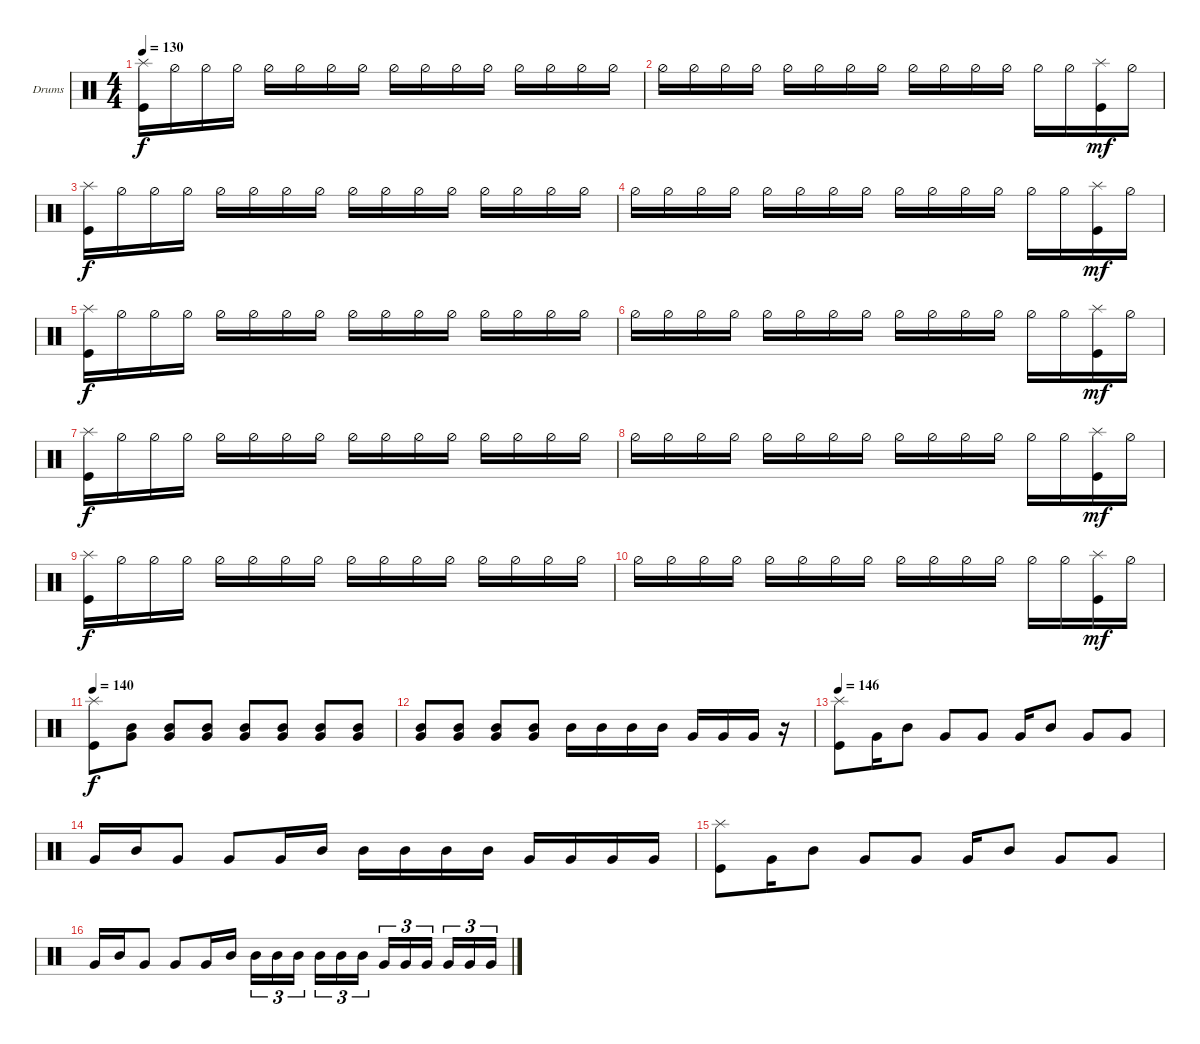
\bracketExtendMode groupsimilarinstruments
\firstSystemTrackNameOrientation horizontal
\otherSystemsTrackNameOrientation horizontal
\track ("Drumkit" "Drums") {instrument percussion}
\staff {score}
\articulation defaults
\ts (4 4)
\tempo 130
\clef neutral
\scale
0.333333
\ks c
("Splash (hit)" "Kick (hit)").16{dy f} "Hi-Hat (half)".16 "Hi-Hat (half)".16 "Hi-Hat (half)".16 "Hi-Hat (half)".16 "Hi-Hat (half)".16 "Hi-Hat (half)".16 "Hi-Hat (half)".16 "Hi-Hat (half)".16 "Hi-Hat (half)".16 "Hi-Hat (half)".16 "Hi-Hat (half)".16 "Hi-Hat (half)".16 "Hi-Hat (half)".16 "Hi-Hat (half)".16 "Hi-Hat (half)".16 |
\scale
0.333333 "Hi-Hat (half)".16 "Hi-Hat (half)".16 "Hi-Hat (half)".16 "Hi-Hat (half)".16 "Hi-Hat (half)".16 "Hi-Hat (half)".16 "Hi-Hat (half)".16 "Hi-Hat (half)".16 "Hi-Hat (half)".16 "Hi-Hat (half)".16 "Hi-Hat (half)".16 "Hi-Hat (half)".16 "Hi-Hat (half)".16 "Hi-Hat (half)".16 ("Kick (hit)" "Splash (hit)").16{dy mf} "Hi-Hat (half)".16 |
\scale
0.333333 ("Splash (hit)" "Kick (hit)").16{dy f} "Hi-Hat (half)".16 "Hi-Hat (half)".16 "Hi-Hat (half)".16 "Hi-Hat (half)".16 "Hi-Hat (half)".16 "Hi-Hat (half)".16 "Hi-Hat (half)".16 "Hi-Hat (half)".16 "Hi-Hat (half)".16 "Hi-Hat (half)".16 "Hi-Hat (half)".16 "Hi-Hat (half)".16 "Hi-Hat (half)".16 "Hi-Hat (half)".16 "Hi-Hat (half)".16 |
\scale
0.333333 "Hi-Hat (half)".16 "Hi-Hat (half)".16 "Hi-Hat (half)".16 "Hi-Hat (half)".16 "Hi-Hat (half)".16 "Hi-Hat (half)".16 "Hi-Hat (half)".16 "Hi-Hat (half)".16 "Hi-Hat (half)".16 "Hi-Hat (half)".16 "Hi-Hat (half)".16 "Hi-Hat (half)".16 "Hi-Hat (half)".16 "Hi-Hat (half)".16 ("Kick (hit)" "Splash (hit)").16{dy mf} "Hi-Hat (half)".16 |
\scale
0.333333 ("Splash (hit)" "Kick (hit)").16{dy f} "Hi-Hat (half)".16 "Hi-Hat (half)".16 "Hi-Hat (half)".16 "Hi-Hat (half)".16 "Hi-Hat (half)".16 "Hi-Hat (half)".16 "Hi-Hat (half)".16 "Hi-Hat (half)".16 "Hi-Hat (half)".16 "Hi-Hat (half)".16 "Hi-Hat (half)".16 "Hi-Hat (half)".16 "Hi-Hat (half)".16 "Hi-Hat (half)".16 "Hi-Hat (half)".16 |
\scale
0.333333 "Hi-Hat (half)".16 "Hi-Hat (half)".16 "Hi-Hat (half)".16 "Hi-Hat (half)".16 "Hi-Hat (half)".16 "Hi-Hat (half)".16 "Hi-Hat (half)".16 "Hi-Hat (half)".16 "Hi-Hat (half)".16 "Hi-Hat (half)".16 "Hi-Hat (half)".16 "Hi-Hat (half)".16 "Hi-Hat (half)".16 "Hi-Hat (half)".16 ("Kick (hit)" "Splash (hit)").16{dy mf} "Hi-Hat (half)".16 |
\scale
0.333333 ("Splash (hit)" "Kick (hit)").16{dy f} "Hi-Hat (half)".16 "Hi-Hat (half)".16 "Hi-Hat (half)".16 "Hi-Hat (half)".16 "Hi-Hat (half)".16 "Hi-Hat (half)".16 "Hi-Hat (half)".16 "Hi-Hat (half)".16 "Hi-Hat (half)".16 "Hi-Hat (half)".16 "Hi-Hat (half)".16 "Hi-Hat (half)".16 "Hi-Hat (half)".16 "Hi-Hat (half)".16 "Hi-Hat (half)".16 |
\scale
0.333333 "Hi-Hat (half)".16 "Hi-Hat (half)".16 "Hi-Hat (half)".16 "Hi-Hat (half)".16 "Hi-Hat (half)".16 "Hi-Hat (half)".16 "Hi-Hat (half)".16 "Hi-Hat (half)".16 "Hi-Hat (half)".16 "Hi-Hat (half)".16 "Hi-Hat (half)".16 "Hi-Hat (half)".16 "Hi-Hat (half)".16 "Hi-Hat (half)".16 ("Kick (hit)" "Splash (hit)").16{dy mf} "Hi-Hat (half)".16 |
\scale
0.333333 ("Splash (hit)" "Kick (hit)").16{dy f} "Hi-Hat (half)".16 "Hi-Hat (half)".16 "Hi-Hat (half)".16 "Hi-Hat (half)".16 "Hi-Hat (half)".16 "Hi-Hat (half)".16 "Hi-Hat (half)".16 "Hi-Hat (half)".16 "Hi-Hat (half)".16 "Hi-Hat (half)".16 "Hi-Hat (half)".16 "Hi-Hat (half)".16 "Hi-Hat (half)".16 "Hi-Hat (half)".16 "Hi-Hat (half)".16 |
\scale
0.333333 "Hi-Hat (half)".16 "Hi-Hat (half)".16 "Hi-Hat (half)".16 "Hi-Hat (half)".16 "Hi-Hat (half)".16 "Hi-Hat (half)".16 "Hi-Hat (half)".16 "Hi-Hat (half)".16 "Hi-Hat (half)".16 "Hi-Hat (half)".16 "Hi-Hat (half)".16 "Hi-Hat (half)".16 "Hi-Hat (half)".16 "Hi-Hat (half)".16 ("Kick (hit)" "Splash (hit)").16{dy mf} "Hi-Hat (half)".16 |
\tempo 140
\scale
0.333333 ("Splash (hit)" "Kick (hit)").8{dy f} ("Very Low Tom (hit)" "Mid Tom (hit)").8 ("Mid Tom (hit)" "Very Low Tom (hit)").8 ("Very Low Tom (hit)" "Mid Tom (hit)").8 ("Mid Tom (hit)" "Very Low Tom (hit)").8 ("Very Low Tom (hit)" "Mid Tom (hit)").8 ("Mid Tom (hit)" "Very Low Tom (hit)").8 ("Mid Tom (hit)" "Very Low Tom (hit)").8 |
\scale
0.333333 ("Very Low Tom (hit)" "Mid Tom (hit)").8 ("Mid Tom (hit)" "Very Low Tom (hit)").8 ("Very Low Tom (hit)" "Mid Tom (hit)").8 ("Mid Tom (hit)" "Very Low Tom (hit)").8 "Mid Tom (hit)".16 "Mid Tom (hit)".16 "Mid Tom (hit)".16 "Mid Tom (hit)".16 "Very Low Tom (hit)".16 "Very Low Tom (hit)".16 "Very Low Tom (hit)".16 r.16 |
\tempo 146
\scale
0.333333 ("Kick (hit)" "Splash (hit)").8 "Very Low Tom (hit)".16 "Mid Tom (hit)".8 "Very Low Tom (hit)".8 "Very Low Tom (hit)".8 "Very Low Tom (hit)".16 "Mid Tom (hit)".8 "Very Low Tom (hit)".8 "Very Low Tom (hit)".8 |
\scale
0.333333 "Very Low Tom (hit)".16 "Mid Tom (hit)".16 "Very Low Tom (hit)".8 "Very Low Tom (hit)".8 "Very Low Tom (hit)".16 "Mid Tom (hit)".16 "Mid Tom (hit)".16 "Mid Tom (hit)".16 "Mid Tom (hit)".16 "Mid Tom (hit)".16 "Very Low Tom (hit)".16 "Very Low Tom (hit)".16 "Very Low Tom (hit)".16 "Very Low Tom (hit)".16 |
\scale
0.333333 ("Kick (hit)" "Splash (hit)").8 "Very Low Tom (hit)".16 "Mid Tom (hit)".8 "Very Low Tom (hit)".8 "Very Low Tom (hit)".8 "Very Low Tom (hit)".16 "Mid Tom (hit)".8 "Very Low Tom (hit)".8 "Very Low Tom (hit)".8 |
\scale
0.333333 "Very Low Tom (hit)".16 "Mid Tom (hit)".16 "Very Low Tom (hit)".8 "Very Low Tom (hit)".8 "Very Low Tom (hit)".16 "Mid Tom (hit)".16 "Mid Tom (hit)".16{tu (3 2)} "Mid Tom (hit)".16{tu (3 2)} "Mid Tom (hit)".16{tu (3 2)} "Mid Tom (hit)".16{tu (3 2)} "Mid Tom (hit)".16{tu (3 2)} "Mid Tom (hit)".16{tu (3 2)} "Very Low Tom (hit)".16{tu (3 2)} "Very Low Tom (hit)".16{tu (3 2)} "Very Low Tom (hit)".16{tu (3 2)} "Very Low Tom (hit)".16{tu (3 2)} "Very Low Tom (hit)".16{tu (3 2)} "Very Low Tom (hit)".16{tu (3 2)}
